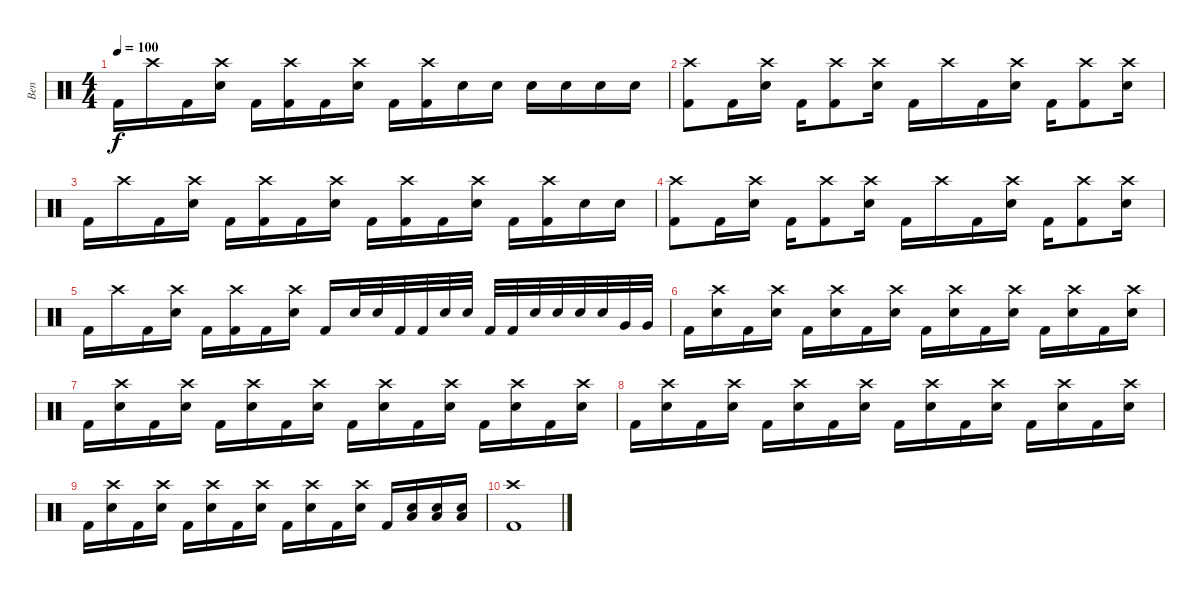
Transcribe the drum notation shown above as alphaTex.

\track ("Ben" "Ben") {instrument percussion}
\staff {score}
\articulation defaults
\ts (4 4)
\tempo 100
\clef neutral
\ks c "Kick (hit) 2".16{dy f} "Crash high (hit)".16 "Kick (hit) 2".16
("Crash high (hit)" "Snare (hit) 2").16 "Kick (hit) 2".16 ("Crash high (hit)" "Kick (hit) 2").16 "Kick (hit) 2".16 ("Crash high (hit)" "Snare (hit) 2").16 "Kick (hit) 2".16 ("Crash high (hit)" "Kick (hit) 2").16 "Snare (hit) 2".16 "Snare (hit) 2".16 "Snare (hit) 2".16 "Snare (hit) 2".16 "Snare (hit) 2".16 "Snare (hit) 2".16 |
("Crash high (hit)" "Kick (hit) 2").8 "Kick (hit) 2".16 ("Crash high (hit)" "Snare (hit) 2").16 "Kick (hit) 2".16 ("Crash high (hit)" "Kick (hit) 2").8 ("Crash high (hit)" "Snare (hit) 2").16 "Kick (hit) 2".16 "Crash high (hit)".16 "Kick (hit) 2".16 ("Crash high (hit)" "Snare (hit) 2").16 "Kick (hit) 2".16 ("Crash high (hit)" "Kick (hit) 2").8 ("Crash high (hit)" "Snare (hit) 2").16 |
"Kick (hit) 2".16 "Crash high (hit)".16 "Kick (hit) 2".16 ("Crash high (hit)" "Snare (hit) 2").16 "Kick (hit) 2".16 ("Crash high (hit)" "Kick (hit) 2").16 "Kick (hit) 2".16 ("Crash high (hit)" "Snare (hit) 2").16 "Kick (hit) 2".16 ("Crash high (hit)" "Kick (hit) 2").16 "Kick (hit) 2".16 ("Crash high (hit)" "Snare (hit) 2").16 "Kick (hit) 2".16 ("Crash high (hit)" "Kick (hit) 2").16 "Snare (hit) 2".16 "Snare (hit) 2".16 |
("Crash high (hit)" "Kick (hit) 2").8 "Kick (hit) 2".16 ("Crash high (hit)" "Snare (hit) 2").16 "Kick (hit) 2".16 ("Crash high (hit)" "Kick (hit) 2").8 ("Crash high (hit)" "Snare (hit) 2").16 "Kick (hit) 2".16 "Crash high (hit)".16 "Kick (hit) 2".16 ("Crash high (hit)" "Snare (hit) 2").16 "Kick (hit) 2".16 ("Crash high (hit)" "Kick (hit) 2").8 ("Crash high (hit)" "Snare (hit) 2").16 |
"Kick (hit) 2".16 "Crash high (hit)".16 "Kick (hit) 2".16 ("Crash high (hit)" "Snare (hit) 2").16 "Kick (hit) 2".16 ("Crash high (hit)" "Kick (hit) 2").16 "Kick (hit) 2".16 ("Crash high (hit)" "Snare (hit) 2").16 "Kick (hit) 2".16 "Snare (hit) 2".32 "Snare (hit) 2".32 "Kick (hit) 2".32 "Kick (hit) 2".32 "Snare (hit) 2".32 "Snare (hit) 2".32 "Kick (hit) 2".32 "Kick (hit) 2".32 "Snare (hit) 2".32 "Snare (hit) 2".32 "Snare (hit) 2".32 "Snare (hit) 2".32 "Very Low Tom (hit)".32 "Very Low Tom (hit)".32 |
"Kick (hit) 2".16 ("Snare (hit) 2" "Crash high (hit)").16 "Kick (hit) 2".16 ("Snare (hit) 2" "Crash high (hit)").16 "Kick (hit) 2".16 ("Snare (hit) 2" "Crash high (hit)").16 "Kick (hit) 2".16 ("Snare (hit) 2" "Crash high (hit)").16 "Kick (hit) 2".16 ("Snare (hit) 2" "Crash high (hit)").16 "Kick (hit) 2".16 ("Snare (hit) 2" "Crash high (hit)").16 "Kick (hit) 2".16 ("Snare (hit) 2" "Crash high (hit)").16 "Kick (hit) 2".16 ("Snare (hit) 2" "Crash high (hit)").16 |
"Kick (hit) 2".16 ("Snare (hit) 2" "Crash high (hit)").16 "Kick (hit) 2".16 ("Snare (hit) 2" "Crash high (hit)").16 "Kick (hit) 2".16 ("Snare (hit) 2" "Crash high (hit)").16 "Kick (hit) 2".16 ("Snare (hit) 2" "Crash high (hit)").16 "Kick (hit) 2".16 ("Snare (hit) 2" "Crash high (hit)").16 "Kick (hit) 2".16 ("Snare (hit) 2" "Crash high (hit)").16 "Kick (hit) 2".16 ("Snare (hit) 2" "Crash high (hit)").16 "Kick (hit) 2".16 ("Snare (hit) 2" "Crash high (hit)").16 |
"Kick (hit) 2".16 ("Snare (hit) 2" "Crash high (hit)").16 "Kick (hit) 2".16 ("Snare (hit) 2" "Crash high (hit)").16 "Kick (hit) 2".16 ("Snare (hit) 2" "Crash high (hit)").16 "Kick (hit) 2".16 ("Snare (hit) 2" "Crash high (hit)").16 "Kick (hit) 2".16 ("Snare (hit) 2" "Crash high (hit)").16 "Kick (hit) 2".16 ("Snare (hit) 2" "Crash high (hit)").16 "Kick (hit) 2".16 ("Snare (hit) 2" "Crash high (hit)").16 "Kick (hit) 2".16 ("Snare (hit) 2" "Crash high (hit)").16 |
"Kick (hit) 2".16 ("Snare (hit) 2" "Crash high (hit)").16 "Kick (hit) 2".16 ("Snare (hit) 2" "Crash high (hit)").16 "Kick (hit) 2".16 ("Snare (hit) 2" "Crash high (hit)").16 "Kick (hit) 2".16 ("Snare (hit) 2" "Crash high (hit)").16 "Kick (hit) 2".16 ("Snare (hit) 2" "Crash high (hit)").16 "Kick (hit) 2".16 ("Snare (hit) 2" "Crash high (hit)").16 "Kick (hit) 2".16 ("Snare (hit) 2" "Low Floor Tom (hit)").16 ("Snare (hit) 2" "Low Floor Tom (hit)").16 ("Snare (hit) 2" "Low Floor Tom (hit)").16 |
("Crash high (hit)" "Kick (hit) 2").1
